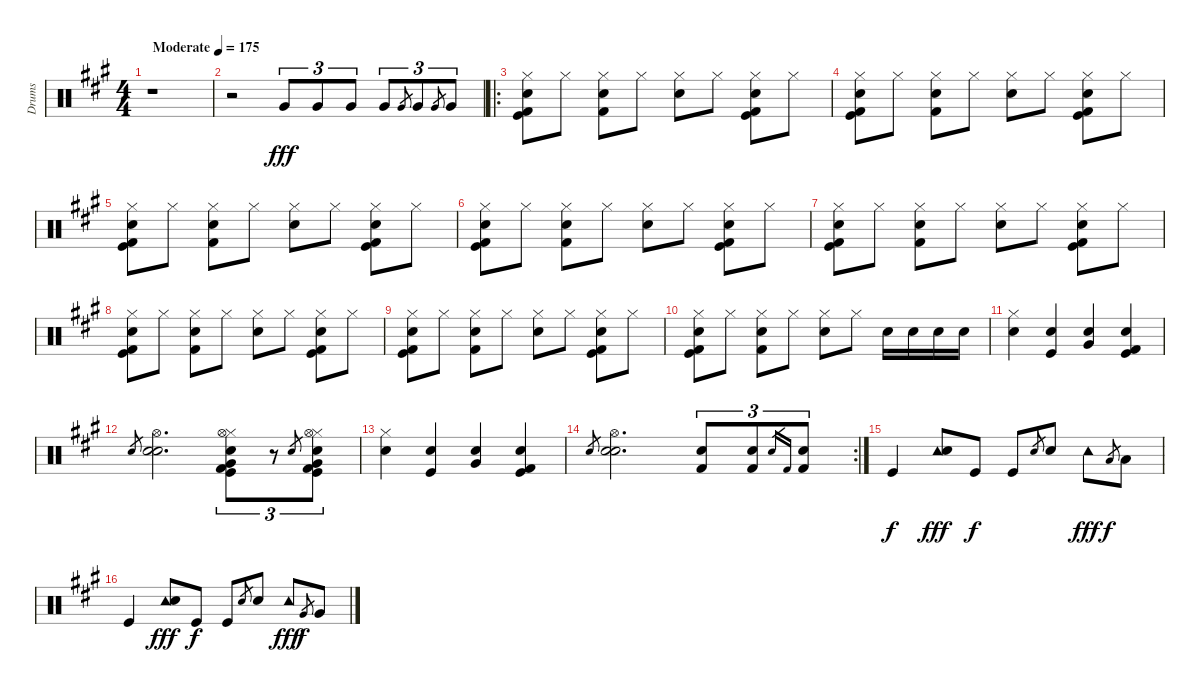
\track ("Drums" "Drums") {instrument percussion}
\staff {score}
\articulation defaults
\ts (4 4)
\tempo (175 "Moderate")
\clef neutral
\ks a
r.1{dy fff} |
r.2 "Very Low Tom (hit)".8{tu (3 2)} "Very Low Tom (hit)".8{tu (3 2)} "Very Low Tom (hit)".8{tu (3 2)} "Very Low Tom (hit)".8{tu (3 2)} "Very Low Tom (hit)".8{gr} "Very Low Tom (hit)".8{tu (3 2)} "Very Low Tom (hit)".8{gr} "Very Low Tom (hit)".8{tu (3 2)} |
\ro
("Hi-Hat (closed)" "Snare (hit) 2" "Kick (hit) 2" "Kick (hit)").8 "Hi-Hat (closed)".8 ("Hi-Hat (closed)" "Snare (hit) 2" "Kick (hit) 2").8 "Hi-Hat (closed)".8 ("Hi-Hat (closed)" "Snare (hit) 2").8 "Hi-Hat (closed)".8 ("Hi-Hat (closed)" "Snare (hit) 2" "Kick (hit) 2" "Kick (hit)").8 "Hi-Hat (closed)".8 |
("Hi-Hat (closed)" "Snare (hit) 2" "Kick (hit) 2" "Kick (hit)").8 "Hi-Hat (closed)".8 ("Hi-Hat (closed)" "Snare (hit) 2" "Kick (hit) 2").8 "Hi-Hat (closed)".8 ("Hi-Hat (closed)" "Snare (hit) 2").8 "Hi-Hat (closed)".8 ("Hi-Hat (closed)" "Snare (hit) 2" "Kick (hit) 2" "Kick (hit)").8 "Hi-Hat (closed)".8 |
("Hi-Hat (closed)" "Snare (hit) 2" "Kick (hit) 2" "Kick (hit)").8 "Hi-Hat (closed)".8 ("Hi-Hat (closed)" "Snare (hit) 2" "Kick (hit) 2").8 "Hi-Hat (closed)".8 ("Hi-Hat (closed)" "Snare (hit) 2").8 "Hi-Hat (closed)".8 ("Hi-Hat (closed)" "Snare (hit) 2" "Kick (hit) 2" "Kick (hit)").8 "Hi-Hat (closed)".8 |
("Hi-Hat (closed)" "Snare (hit) 2" "Kick (hit) 2" "Kick (hit)").8 "Hi-Hat (closed)".8 ("Hi-Hat (closed)" "Snare (hit) 2" "Kick (hit) 2").8 "Hi-Hat (closed)".8 ("Hi-Hat (closed)" "Snare (hit) 2").8 "Hi-Hat (closed)".8 ("Hi-Hat (closed)" "Snare (hit) 2" "Kick (hit) 2" "Kick (hit)").8 "Hi-Hat (closed)".8 |
("Hi-Hat (closed)" "Snare (hit) 2" "Kick (hit) 2" "Kick (hit)").8 "Hi-Hat (closed)".8 ("Hi-Hat (closed)" "Snare (hit) 2" "Kick (hit) 2").8 "Hi-Hat (closed)".8 ("Hi-Hat (closed)" "Snare (hit) 2").8 "Hi-Hat (closed)".8 ("Hi-Hat (closed)" "Snare (hit) 2" "Kick (hit) 2" "Kick (hit)").8 "Hi-Hat (closed)".8 |
("Hi-Hat (closed)" "Snare (hit) 2" "Kick (hit) 2" "Kick (hit)").8 "Hi-Hat (closed)".8 ("Hi-Hat (closed)" "Snare (hit) 2" "Kick (hit) 2").8 "Hi-Hat (closed)".8 ("Hi-Hat (closed)" "Snare (hit) 2").8 "Hi-Hat (closed)".8 ("Hi-Hat (closed)" "Snare (hit) 2" "Kick (hit) 2" "Kick (hit)").8 "Hi-Hat (closed)".8 |
("Hi-Hat (closed)" "Snare (hit) 2" "Kick (hit) 2" "Kick (hit)").8 "Hi-Hat (closed)".8 ("Hi-Hat (closed)" "Snare (hit) 2" "Kick (hit) 2").8 "Hi-Hat (closed)".8 ("Hi-Hat (closed)" "Snare (hit) 2").8 "Hi-Hat (closed)".8 ("Hi-Hat (closed)" "Snare (hit) 2" "Kick (hit) 2" "Kick (hit)").8 "Hi-Hat (closed)".8 |
("Hi-Hat (closed)" "Snare (hit) 2" "Kick (hit) 2" "Kick (hit)").8 "Hi-Hat (closed)".8 ("Hi-Hat (closed)" "Snare (hit) 2" "Kick (hit) 2").8 "Hi-Hat (closed)".8 ("Hi-Hat (closed)" "Snare (hit) 2").8 "Hi-Hat (closed)".8 "Snare (hit) 2".16 "Snare (hit) 2".16 "Snare (hit) 2".16 "Snare (hit) 2".16 |
("Hi-Hat (closed)" "Snare (hit) 2").4 ("Snare (hit) 2" "Kick (hit)").4 ("Very Low Tom (hit)" "Snare (hit) 2").4 ("Kick (hit) 2" "Snare (hit) 2" "Kick (hit)").4 |
"Snare (hit) 2".8{gr} ("Hi-Hat (open)" "Snare (hit) 2" "Snare (hit) 2").2{d} ("Hi-Hat (closed)" "Snare (hit) 2" "Kick (hit) 2" "Kick (hit)" "Very Low Tom (hit)" "Hi-Hat (open)").8{tu (3 2)} r.8{tu (3 2)} "Snare (hit) 2".8{gr} ("Hi-Hat (closed)" "Snare (hit) 2" "Kick (hit) 2" "Kick (hit)" "Very Low Tom (hit)" "Hi-Hat (open)").8{tu (3 2)} |
("Hi-Hat (closed)" "Snare (hit) 2").4 ("Snare (hit) 2" "Kick (hit)").4 ("Very Low Tom (hit)" "Snare (hit) 2").4 ("Kick (hit) 2" "Snare (hit) 2" "Kick (hit)").4 |
\rc 2 "Snare (hit) 2".8{gr}
("Hi-Hat (open)" "Snare (hit) 2" "Snare (hit) 2").2{d} ("Snare (hit) 2" "Kick (hit) 2").8{tu (3 2)} ("Snare (hit) 2" "Kick (hit) 2").8{tu (3 2)} "Snare (hit) 2".16{gr} "Kick (hit) 2".16{gr} ("Snare (hit) 2" "Kick (hit) 2").8{tu (3 2)} |
"Kick (hit)".4{dy f} ("Tambourine (hit)" "Snare (hit) 2").8{dy fff} "Kick (hit)".8{dy f} "Kick (hit)".8 "Snare (hit) 2".8{gr} "Snare (hit) 2".8 "Tambourine (hit)".8{dy fff} "Low Tom (hit)".8{gr dy f} "Low Tom (hit)".8 |
"Kick (hit)".4 ("Tambourine (hit)" "Snare (hit) 2").8{dy fff} "Kick (hit)".8{dy f} "Kick (hit)".8 "Snare (hit) 2".8{gr} "Snare (hit) 2".8 "Tambourine (hit)".8{dy fff} "Very Low Tom (hit)".8{gr dy f} "Very Low Tom (hit)".8
